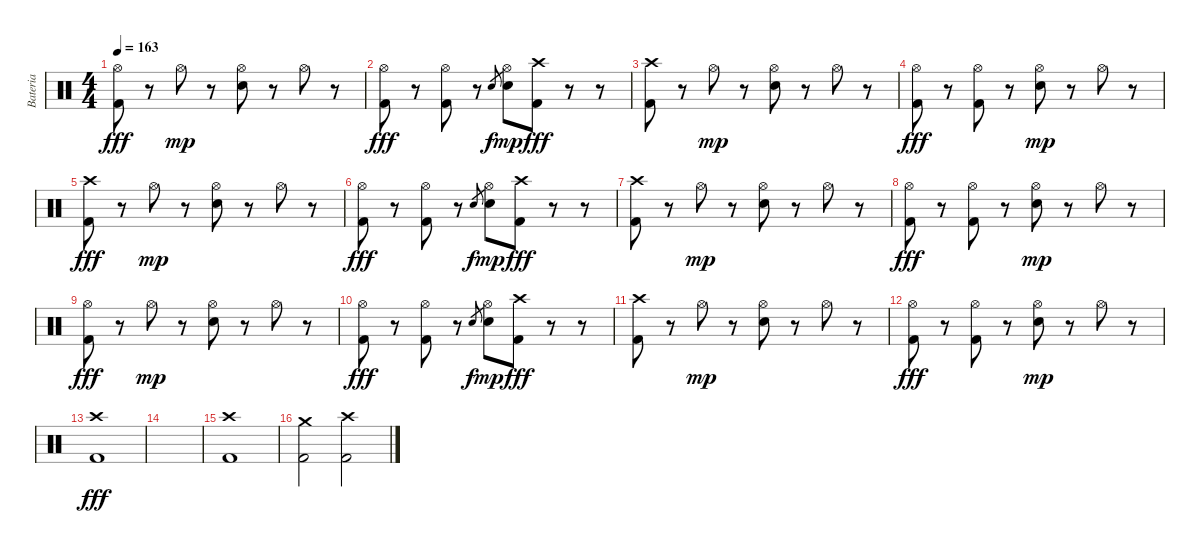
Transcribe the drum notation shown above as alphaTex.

\track ("Bateria" "Bateria") {instrument percussion}
\staff {score}
\articulation defaults
\ts (4 4)
\tempo 163
\clef neutral
\ks c
("Hi-Hat (open)" "Kick (hit) 2").8{dy fff} r.8 "Hi-Hat (open)".8{dy mp} r.8 ("Hi-Hat (open)" "Electric Snare (hit)").8 r.8 "Hi-Hat (open)".8 r.8 |
("Hi-Hat (open)" "Kick (hit) 2").8{dy fff} r.8 ("Hi-Hat (open)" "Kick (hit) 2").8 r.8 "Electric Snare (hit)".8{gr dy f} ("Hi-Hat (open)" "Electric Snare (hit)").8{dy mp} ("Crash high (hit)" "Kick (hit) 2").8{dy fff} r.8 r.8 |
("Crash high (hit)" "Kick (hit) 2").8 r.8 "Hi-Hat (open)".8{dy mp} r.8 ("Hi-Hat (open)" "Electric Snare (hit)").8 r.8 "Hi-Hat (open)".8 r.8 |
("Hi-Hat (open)" "Kick (hit) 2").8{dy fff} r.8 ("Hi-Hat (open)" "Kick (hit) 2").8 r.8 ("Hi-Hat (open)" "Electric Snare (hit)").8{dy mp} r.8 "Hi-Hat (open)".8 r.8 |
("Crash high (hit)" "Kick (hit) 2").8{dy fff} r.8 "Hi-Hat (open)".8{dy mp} r.8 ("Hi-Hat (open)" "Electric Snare (hit)").8 r.8 "Hi-Hat (open)".8 r.8 |
("Hi-Hat (open)" "Kick (hit) 2").8{dy fff} r.8 ("Hi-Hat (open)" "Kick (hit) 2").8 r.8 "Electric Snare (hit)".8{gr dy f} ("Hi-Hat (open)" "Electric Snare (hit)").8{dy mp} ("Crash high (hit)" "Kick (hit) 2").8{dy fff} r.8 r.8 |
("Crash high (hit)" "Kick (hit) 2").8 r.8 "Hi-Hat (open)".8{dy mp} r.8 ("Hi-Hat (open)" "Electric Snare (hit)").8 r.8 "Hi-Hat (open)".8 r.8 |
("Hi-Hat (open)" "Kick (hit) 2").8{dy fff} r.8 ("Hi-Hat (open)" "Kick (hit) 2").8 r.8 ("Hi-Hat (open)" "Electric Snare (hit)").8{dy mp} r.8 "Hi-Hat (open)".8 r.8 |
("Hi-Hat (open)" "Kick (hit) 2").8{dy fff} r.8 "Hi-Hat (open)".8{dy mp} r.8 ("Hi-Hat (open)" "Electric Snare (hit)").8 r.8 "Hi-Hat (open)".8 r.8 |
("Hi-Hat (open)" "Kick (hit) 2").8{dy fff} r.8 ("Hi-Hat (open)" "Kick (hit) 2").8 r.8 "Electric Snare (hit)".8{gr dy f} ("Hi-Hat (open)" "Electric Snare (hit)").8{dy mp} ("Crash high (hit)" "Kick (hit) 2").8{dy fff} r.8 r.8 |
("Crash high (hit)" "Kick (hit) 2").8 r.8 "Hi-Hat (open)".8{dy mp} r.8 ("Hi-Hat (open)" "Electric Snare (hit)").8 r.8 "Hi-Hat (open)".8 r.8 |
("Hi-Hat (open)" "Kick (hit) 2").8{dy fff} r.8 ("Hi-Hat (open)" "Kick (hit) 2").8 r.8 ("Hi-Hat (open)" "Electric Snare (hit)").8{dy mp} r.8 "Hi-Hat (open)".8 r.8 |
("Crash high (hit)" "Kick (hit) 2").1{dy fff} |
|
("Crash high (hit)" "Kick (hit) 2").1 |
("Crash medium (hit)" "Kick (hit) 2").2 ("Crash high (hit)" "Kick (hit) 2").2
